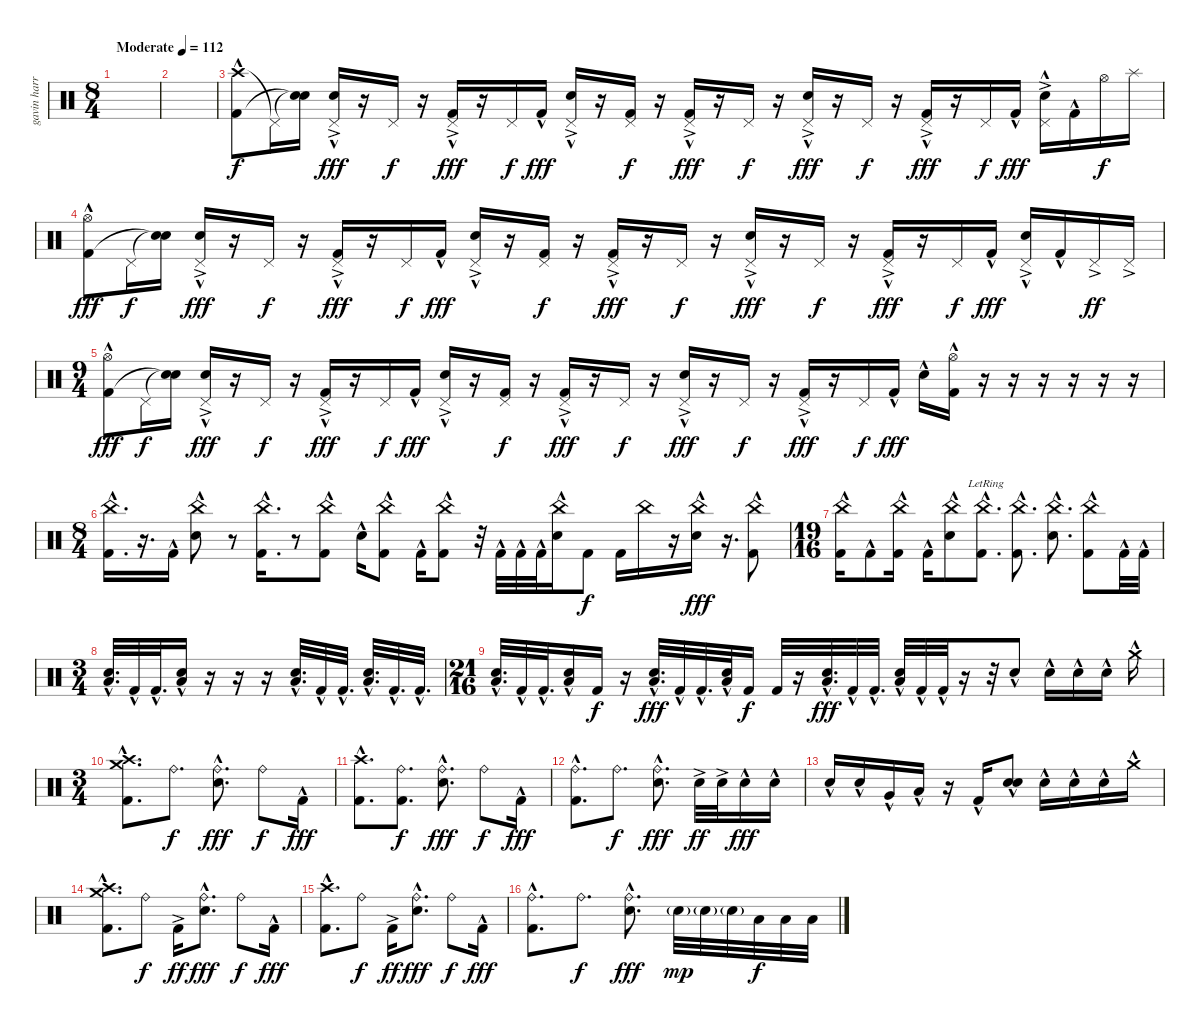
\track ("gavin harrison" "gavin harr") {instrument percussion}
\staff {score}
\articulation defaults
\ts (8 4)
\tempo (112 "Moderate")
\clef neutral
\ks c
|
|
("Crash high (hit)" "Kick (hit) 2"{hac}).8 "Pedal Hi-Hat (hit)"{t}.16{dy f} ("Snare (hit)"{t} "Snare (hit)"{t}).16 ("Pedal Hi-Hat (hit)"{ac} "Electric Snare (hit)"{hac}).16{dy fff} r.16 "Pedal Hi-Hat (hit)".16{dy f} r.16 ("Pedal Hi-Hat (hit)"{ac} "Kick (hit) 2"{hac}).16{dy fff} r.16 "Pedal Hi-Hat (hit)".16{dy f} "Kick (hit) 2"{hac}.16{dy fff} ("Pedal Hi-Hat (hit)"{ac} "Electric Snare (hit)"{hac}).16 r.16 ("Pedal Hi-Hat (hit)" "Kick (hit) 2").16{dy f} r.16 ("Pedal Hi-Hat (hit)"{ac} "Kick (hit) 2"{hac}).16{dy fff} r.16 "Pedal Hi-Hat (hit)".16{dy f} r.16 ("Pedal Hi-Hat (hit)"{ac} "Electric Snare (hit)"{hac}).16{dy fff} r.16 "Pedal Hi-Hat (hit)".16{dy f} r.16 ("Pedal Hi-Hat (hit)"{ac} "Kick (hit) 2"{hac}).16{dy fff} r.16 "Pedal Hi-Hat (hit)".16{dy f} "Kick (hit) 2"{hac}.16{dy fff} ("Pedal Hi-Hat (hit)"{ac} "Electric Snare (hit)"{hac}).16 "Kick (hit) 2"{hac}.16 "Hi-Hat (open)".16{dy f} "Splash (hit)".16 |
("Hi-Hat (open)" "Kick (hit) 2"{hac}).8{dy fff} "Pedal Hi-Hat (hit)".16{dy f} ("Snare (hit)"{t} "Snare (hit)"{t}).16 ("Pedal Hi-Hat (hit)"{ac} "Electric Snare (hit)"{hac}).16{dy fff} r.16 "Pedal Hi-Hat (hit)".16{dy f} r.16 ("Pedal Hi-Hat (hit)"{ac} "Kick (hit) 2"{hac}).16{dy fff} r.16 "Pedal Hi-Hat (hit)".16{dy f} "Kick (hit) 2"{hac}.16{dy fff} ("Pedal Hi-Hat (hit)"{ac} "Electric Snare (hit)"{hac}).16 r.16 ("Pedal Hi-Hat (hit)" "Kick (hit) 2").16{dy f} r.16 ("Pedal Hi-Hat (hit)"{ac} "Kick (hit) 2"{hac}).16{dy fff} r.16 "Pedal Hi-Hat (hit)".16{dy f} r.16 ("Pedal Hi-Hat (hit)"{ac} "Electric Snare (hit)"{hac}).16{dy fff} r.16 "Pedal Hi-Hat (hit)".16{dy f} r.16 ("Pedal Hi-Hat (hit)"{ac} "Kick (hit) 2"{hac}).16{dy fff} r.16 "Pedal Hi-Hat (hit)".16{dy f} "Kick (hit) 2"{hac}.16{dy fff} ("Pedal Hi-Hat (hit)"{ac} "Electric Snare (hit)"{hac}).16 "Kick (hit) 2"{hac}.16 "Pedal Hi-Hat (hit)"{ac}.16{dy ff} "Pedal Hi-Hat (hit)"{ac}.16 |
\ts (9 4)
("Hi-Hat (open)" "Kick (hit) 2"{hac}).8{dy fff} "Pedal Hi-Hat (hit)".16{dy f} ("Snare (hit)"{t} "Snare (hit)"{t}).16 ("Pedal Hi-Hat (hit)"{ac} "Electric Snare (hit)"{hac}).16{dy fff} r.16 "Pedal Hi-Hat (hit)".16{dy f} r.16 ("Pedal Hi-Hat (hit)"{ac} "Kick (hit) 2"{hac}).16{dy fff} r.16 "Pedal Hi-Hat (hit)".16{dy f} "Kick (hit) 2"{hac}.16{dy fff} ("Pedal Hi-Hat (hit)"{ac} "Electric Snare (hit)"{hac}).16 r.16 ("Pedal Hi-Hat (hit)" "Kick (hit) 2").16{dy f} r.16 ("Pedal Hi-Hat (hit)"{ac} "Kick (hit) 2"{hac}).16{dy fff} r.16 "Pedal Hi-Hat (hit)".16{dy f} r.16 ("Pedal Hi-Hat (hit)"{ac} "Electric Snare (hit)"{hac}).16{dy fff} r.16 "Pedal Hi-Hat (hit)".16{dy f} r.16 ("Pedal Hi-Hat (hit)"{ac} "Kick (hit) 2"{hac}).16{dy fff} r.16 "Pedal Hi-Hat (hit)".16{dy f} "Kick (hit) 2"{hac}.16{dy fff} "Electric Snare (hit)"{hac}.16 ("Hi-Hat (open)" "Kick (hit) 2"{hac}).16 r.16 r.16 r.16 r.16 r.16 r.16 |
\ts (8 4)
("China (hit)" "Kick (hit) 2"{hac}).16{d} r.16{d} "Kick (hit) 2"{hac}.16 ("China (hit)" "Electric Snare (hit)"{hac}).8 r.8 ("China (hit)" "Kick (hit) 2"{hac}).16{d} r.8 ("China (hit)" "Kick (hit) 2"{hac}).8 "Electric Snare (hit)"{hac}.16 ("China (hit)" "Kick (hit) 2"{hac}).8 "Kick (hit) 2"{hac}.16 ("China (hit)" "Kick (hit) 2"{hac}).8 r.32 "Kick (hit) 2"{hac}.32 "Kick (hit) 2"{hac}.32 "Kick (hit) 2"{hac}.32 ("China (hit)" "Electric Snare (hit)"{hac}).16 "Kick (hit) 2".8{dy f} "Kick (hit) 2".16 "China (hit)".16 r.16 ("China (hit)" "Electric Snare (hit)"{hac}).16{dy fff} r.16{d} ("China (hit)" "Kick (hit) 2"{hac}).8 |
\ts (19 16)
("China (hit)" "Kick (hit) 2"{hac}).16 "Kick (hit) 2"{hac}.8 ("China (hit)" "Kick (hit) 2"{hac}).16 "Kick (hit) 2"{hac}.16 ("China (hit)" "Electric Snare (hit)"{hac}).8 ("China (hit)" "Kick (hit) 2"{hac lr}).8{d} ("China (hit)" "Kick (hit) 2"{hac}).8{d} ("China (hit)" "Electric Snare (hit)"{hac}).8{d} ("China (hit)" "Kick (hit) 2"{hac}).8 "Kick (hit) 2"{hac}.32 "Kick (hit) 2"{hac}.32 |
\ts (3 4)
("Electric Snare (hit)"{hac} "Low Floor Tom (hit)"{hac}).32{d} "Kick (hit) 2"{hac}.32 "Kick (hit) 2"{hac}.32{d} ("Electric Snare (hit)"{hac} "Low Floor Tom (hit)"{hac}).16 r.16 r.16 r.16 ("Electric Snare (hit)"{hac} "Low Floor Tom (hit)"{hac}).32{d} "Kick (hit) 2"{hac}.32 "Kick (hit) 2"{hac}.32{d} ("Electric Snare (hit)"{hac} "Low Floor Tom (hit)"{hac}).32{d} "Kick (hit) 2"{hac}.32{d} "Kick (hit) 2"{hac}.32{d} |
\ts (21 16)
("Electric Snare (hit)"{hac} "Low Floor Tom (hit)"{hac}).32{d} "Kick (hit) 2"{hac}.32 "Kick (hit) 2"{hac}.32{d} ("Electric Snare (hit)"{hac} "Low Floor Tom (hit)"{hac}).16 "Kick (hit) 2".16{dy f} r.16 ("Electric Snare (hit)"{hac} "Low Floor Tom (hit)"{hac}).32{d dy fff} "Kick (hit) 2"{hac}.32 "Kick (hit) 2"{hac}.32{d} ("Electric Snare (hit)"{hac} "Low Floor Tom (hit)"{hac}).32 "Kick (hit) 2".16{dy f} "Kick (hit) 2".32 r.16 ("Electric Snare (hit)"{hac} "Low Floor Tom (hit)"{hac}).32{d dy fff} "Kick (hit) 2"{hac}.32 "Kick (hit) 2"{hac}.32{d} ("Electric Snare (hit)"{hac} "Low Floor Tom (hit)"{hac}).32 "Kick (hit) 2"{hac}.32 "Kick (hit) 2"{hac}.32 r.16 r.32 "Electric Snare (hit)"{hac}.8 "Electric Snare (hit)"{hac}.16 "Electric Snare (hit)"{hac}.16 "Electric Snare (hit)"{hac}.16 "Crash medium (hit)"{hac}.16 |
\ts (3 4)
("Crash high (hit)" "Crash medium (hit)" "Kick (hit) 2"{hac}).8{d} "Ride (bell)".8{d dy f} ("Ride (bell)" "Electric Snare (hit)"{hac}).8{d dy fff} "Ride (bell)".8{dy f} "Kick (hit) 2"{hac}.16{dy fff} |
("Crash high (hit)" "Kick (hit) 2"{hac}).8{d} ("Ride (bell)" "Kick (hit) 2").8{d dy f} ("Ride (bell)" "Electric Snare (hit)"{hac}).8{d dy fff} "Ride (bell)".8{dy f} "Kick (hit) 2"{hac}.16{dy fff} |
("Ride (bell)" "Kick (hit) 2"{hac}).8{d} "Ride (bell)".8{d dy f} ("Ride (bell)" "Electric Snare (hit)"{hac}).8{d dy fff} "Electric Snare (hit)"{ac}.32{dy ff} "Electric Snare (hit)"{ac}.32 "Electric Snare (hit)"{hac}.16{dy fff} "Electric Snare (hit)"{hac}.16 |
"Electric Snare (hit)"{hac}.16 "Electric Snare (hit)"{hac}.16 "Very Low Tom (hit)"{hac}.16 "Low Floor Tom (hit)"{hac}.16 r.16 "Kick (hit) 2"{hac}.16 ("Electric Snare (hit)"{hac} "Electric Snare (hit)"{hac}).8 "Electric Snare (hit)"{hac}.16 "Electric Snare (hit)"{hac}.16 "Electric Snare (hit)"{hac}.16 "Crash medium (hit)"{hac}.16 |
("Crash high (hit)" "Crash medium (hit)" "Kick (hit) 2"{hac}).8{d} "Ride (bell)".8{dy f} "Kick (hit) 2"{ac}.16{dy ff} ("Ride (bell)" "Electric Snare (hit)"{hac}).8{d dy fff} "Ride (bell)".8{dy f} "Kick (hit) 2"{hac}.16{dy fff} |
("Crash high (hit)" "Kick (hit) 2"{hac}).8{d} "Ride (bell)".8{dy f} "Kick (hit) 2"{ac}.16{dy ff} ("Ride (bell)" "Electric Snare (hit)"{hac}).8{d dy fff} "Ride (bell)".8{dy f} "Kick (hit) 2"{hac}.16{dy fff} |
("Ride (bell)" "Kick (hit) 2"{hac}).8{d} "Ride (bell)".8{d dy f} ("Ride (bell)" "Electric Snare (hit)"{hac}).8{d dy fff} "Electric Snare (hit)"{g}.32{dy mp} "Electric Snare (hit)"{g}.32 "Electric Snare (hit)"{g}.32 "Low Floor Tom (hit)".32{dy f} "Low Floor Tom (hit)".32 "Low Floor Tom (hit)".32
